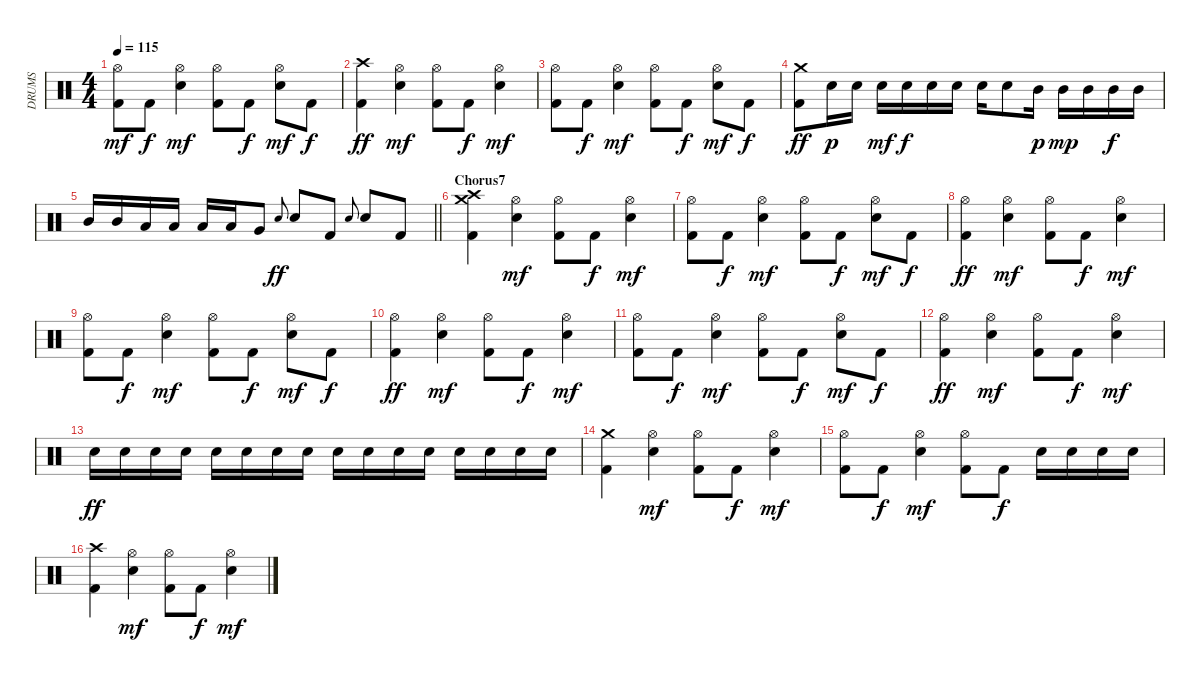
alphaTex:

\track ("DRUMS" "DRUMS") {instrument percussion}
\staff {score}
\articulation defaults
\ts (4 4)
\tempo 115
\clef neutral
\ks c
("Hi-Hat (open)" "Kick (hit) 2").8{dy mf} "Kick (hit) 2".8{dy f} ("Hi-Hat (open)" "Snare (hit) 2").4{dy mf} ("Hi-Hat (open)" "Kick (hit) 2").8 "Kick (hit) 2".8{dy f} ("Hi-Hat (open)" "Snare (hit) 2").8{dy mf} "Kick (hit) 2".8{dy f} |
("Crash high (hit)" "Kick (hit) 2").4{dy ff} ("Hi-Hat (open)" "Snare (hit) 2").4{dy mf} ("Hi-Hat (open)" "Kick (hit) 2").8 "Kick (hit) 2".8{dy f} ("Hi-Hat (open)" "Snare (hit) 2").4{dy mf} |
("Hi-Hat (open)" "Kick (hit) 2").8 "Kick (hit) 2".8{dy f} ("Hi-Hat (open)" "Snare (hit) 2").4{dy mf} ("Hi-Hat (open)" "Kick (hit) 2").8 "Kick (hit) 2".8{dy f} ("Hi-Hat (open)" "Snare (hit) 2").8{dy mf} "Kick (hit) 2".8{dy f} |
("Crash medium (hit)" "Kick (hit) 2").8{dy ff} "Electric Snare (hit)".16{dy p} "Snare (hit) 2".16 "Electric Snare (hit)".16{dy mf} "Snare (hit) 2".16{dy f} "Electric Snare (hit)".16 "Snare (hit) 2".16 "Electric Snare (hit)".16 "Snare (hit) 2".8 "Mid Tom (hit)".16{dy p} "Mid Tom (hit)".16{dy mp} "Mid Tom (hit)".16 "Mid Tom (hit)".16{dy f} "Mid Tom (hit)".16 |
\barLineRight lightlight "Mid Tom (hit)".16 "Mid Tom (hit)".16 "Low Tom (hit)".16 "Low Tom (hit)".16 "Low Tom (hit)".16 "Low Tom (hit)".16 "Very Low Tom (hit)".8 "Electric Snare (hit)".8{gr onbeat dy ff} "Snare (hit) 2".8 "Kick (hit) 2".8 "Electric Snare (hit)".8{gr onbeat} "Snare (hit) 2".8 "Kick (hit) 2".8
|
\section ("" "Chorus7")
("Crash high (hit)" "Crash medium (hit)" "Kick (hit) 2").4 ("Hi-Hat (open)" "Snare (hit) 2").4{dy mf} ("Hi-Hat (open)" "Kick (hit) 2").8 "Kick (hit) 2".8{dy f} ("Hi-Hat (open)" "Snare (hit) 2").4{dy mf} |
("Hi-Hat (open)" "Kick (hit) 2").8 "Kick (hit) 2".8{dy f} ("Hi-Hat (open)" "Snare (hit) 2").4{dy mf} ("Hi-Hat (open)" "Kick (hit) 2").8 "Kick (hit) 2".8{dy f} ("Hi-Hat (open)" "Snare (hit) 2").8{dy mf} "Kick (hit) 2".8{dy f} |
("Hi-Hat (open)" "Kick (hit) 2").4{dy ff} ("Hi-Hat (open)" "Snare (hit) 2").4{dy mf} ("Hi-Hat (open)" "Kick (hit) 2").8 "Kick (hit) 2".8{dy f} ("Hi-Hat (open)" "Snare (hit) 2").4{dy mf} |
("Hi-Hat (open)" "Kick (hit) 2").8 "Kick (hit) 2".8{dy f} ("Hi-Hat (open)" "Snare (hit) 2").4{dy mf} ("Hi-Hat (open)" "Kick (hit) 2").8 "Kick (hit) 2".8{dy f} ("Hi-Hat (open)" "Snare (hit) 2").8{dy mf} "Kick (hit) 2".8{dy f} |
("Hi-Hat (open)" "Kick (hit) 2").4{dy ff} ("Hi-Hat (open)" "Snare (hit) 2").4{dy mf} ("Hi-Hat (open)" "Kick (hit) 2").8 "Kick (hit) 2".8{dy f} ("Hi-Hat (open)" "Snare (hit) 2").4{dy mf} |
("Hi-Hat (open)" "Kick (hit) 2").8 "Kick (hit) 2".8{dy f} ("Hi-Hat (open)" "Snare (hit) 2").4{dy mf} ("Hi-Hat (open)" "Kick (hit) 2").8 "Kick (hit) 2".8{dy f} ("Hi-Hat (open)" "Snare (hit) 2").8{dy mf} "Kick (hit) 2".8{dy f} |
("Hi-Hat (open)" "Kick (hit) 2").4{dy ff} ("Hi-Hat (open)" "Snare (hit) 2").4{dy mf} ("Hi-Hat (open)" "Kick (hit) 2").8 "Kick (hit) 2".8{dy f} ("Hi-Hat (open)" "Snare (hit) 2").4{dy mf} |
"Electric Snare (hit)".16{dy ff} "Snare (hit) 2".16 "Electric Snare (hit)".16 "Snare (hit) 2".16 "Electric Snare (hit)".16 "Snare (hit) 2".16 "Electric Snare (hit)".16 "Snare (hit) 2".16 "Electric Snare (hit)".16 "Snare (hit) 2".16 "Electric Snare (hit)".16 "Snare (hit) 2".16 "Electric Snare (hit)".16 "Snare (hit) 2".16 "Electric Snare (hit)".16 "Snare (hit) 2".16 |
("Crash medium (hit)" "Kick (hit) 2").4 ("Hi-Hat (open)" "Snare (hit) 2").4{dy mf} ("Hi-Hat (open)" "Kick (hit) 2").8 "Kick (hit) 2".8{dy f} ("Hi-Hat (open)" "Snare (hit) 2").4{dy mf} |
("Hi-Hat (open)" "Kick (hit) 2").8 "Kick (hit) 2".8{dy f} ("Hi-Hat (open)" "Snare (hit) 2").4{dy mf} ("Hi-Hat (open)" "Kick (hit) 2").8 "Kick (hit) 2".8{dy f} "Electric Snare (hit)".16 "Snare (hit) 2".16 "Electric Snare (hit)".16 "Snare (hit) 2".16 |
("Crash high (hit)" "Kick (hit) 2").4 ("Hi-Hat (open)" "Snare (hit) 2").4{dy mf} ("Hi-Hat (open)" "Kick (hit) 2").8 "Kick (hit) 2".8{dy f} ("Hi-Hat (open)" "Snare (hit) 2").4{dy mf}
